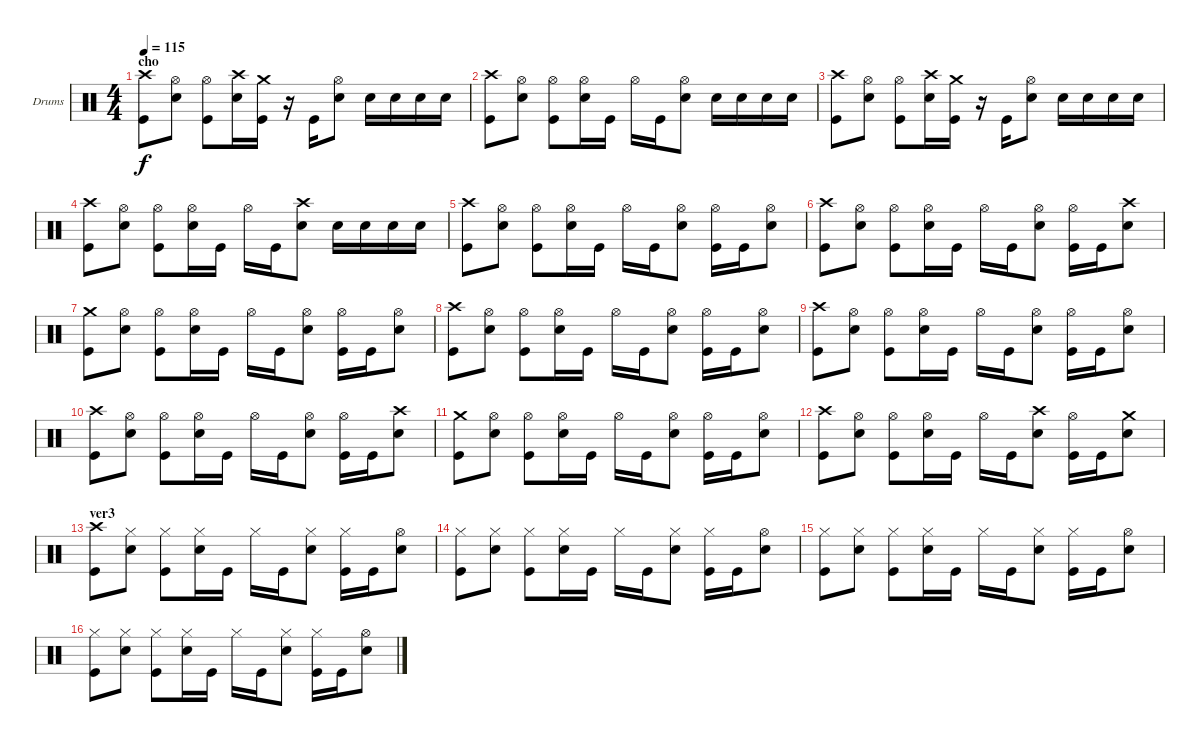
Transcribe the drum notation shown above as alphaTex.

\bracketExtendMode groupsimilarinstruments
\firstSystemTrackNameOrientation horizontal
\otherSystemsTrackNameOrientation horizontal
\track ("Drumkit" "Drums") {instrument percussion}
\staff {score}
\articulation defaults
\ts (4 4)
\section ("" "cho")
\tempo 115
\clef neutral
\ks c
("Crash high (hit)" "Kick (hit)").8{dy f} ("Hi-Hat (open)" "Snare (hit) 2").8 ("Hi-Hat (open)" "Kick (hit)").8 ("Crash high (hit)" "Snare (hit) 2").16 ("Crash medium (hit)" "Kick (hit)").16 r.16 "Kick (hit)".16 ("Hi-Hat (open)" "Snare (hit) 2").8 "Snare (hit) 2".16 "Snare (hit) 2".16 "Snare (hit) 2".16 "Snare (hit) 2".16 |
("Crash high (hit)" "Kick (hit)").8 ("Hi-Hat (open)" "Snare (hit) 2").8 ("Hi-Hat (open)" "Kick (hit)").8 ("Hi-Hat (open)" "Snare (hit) 2").16 "Kick (hit)".16 "Hi-Hat (open)".16 "Kick (hit)".16 ("Hi-Hat (open)" "Snare (hit) 2").8 "Snare (hit) 2".16 "Snare (hit) 2".16 "Snare (hit) 2".16 "Snare (hit) 2".16 |
("Crash high (hit)" "Kick (hit)").8 ("Hi-Hat (open)" "Snare (hit) 2").8 ("Hi-Hat (open)" "Kick (hit)").8 ("Crash high (hit)" "Snare (hit) 2").16 ("Crash medium (hit)" "Kick (hit)").16 r.16 "Kick (hit)".16 ("Hi-Hat (open)" "Snare (hit) 2").8 "Snare (hit) 2".16 "Snare (hit) 2".16 "Snare (hit) 2".16 "Snare (hit) 2".16 |
("Crash high (hit)" "Kick (hit)").8 ("Hi-Hat (open)" "Snare (hit) 2").8 ("Hi-Hat (open)" "Kick (hit)").8 ("Hi-Hat (open)" "Snare (hit) 2").16 "Kick (hit)".16 "Hi-Hat (open)".16 "Kick (hit)".16 ("Crash high (hit)" "Snare (hit) 2").8 "Snare (hit) 2".16 "Snare (hit) 2".16 "Snare (hit) 2".16 "Snare (hit) 2".16 |
("Crash high (hit)" "Kick (hit)").8 ("Hi-Hat (open)" "Snare (hit) 2").8 ("Hi-Hat (open)" "Kick (hit)").8 ("Hi-Hat (open)" "Snare (hit) 2").16 "Kick (hit)".16 "Hi-Hat (open)".16 "Kick (hit)".16 ("Hi-Hat (open)" "Snare (hit) 2").8 ("Hi-Hat (open)" "Kick (hit)").16 "Kick (hit)".16 ("Hi-Hat (open)" "Snare (hit) 2").8 |
("Crash high (hit)" "Kick (hit)").8 ("Hi-Hat (open)" "Snare (hit) 2").8 ("Hi-Hat (open)" "Kick (hit)").8 ("Hi-Hat (open)" "Snare (hit) 2").16 "Kick (hit)".16 "Hi-Hat (open)".16 "Kick (hit)".16 ("Hi-Hat (open)" "Snare (hit) 2").8 ("Hi-Hat (open)" "Kick (hit)").16 "Kick (hit)".16 ("Crash high (hit)" "Snare (hit) 2").8 |
("Crash medium (hit)" "Kick (hit)").8 ("Hi-Hat (open)" "Snare (hit) 2").8 ("Hi-Hat (open)" "Kick (hit)").8 ("Hi-Hat (open)" "Snare (hit) 2").16 "Kick (hit)".16 "Hi-Hat (open)".16 "Kick (hit)".16 ("Hi-Hat (open)" "Snare (hit) 2").8 ("Hi-Hat (open)" "Kick (hit)").16 "Kick (hit)".16 ("Hi-Hat (open)" "Snare (hit) 2").8 |
("Crash high (hit)" "Kick (hit)").8 ("Hi-Hat (open)" "Snare (hit) 2").8 ("Hi-Hat (open)" "Kick (hit)").8 ("Hi-Hat (open)" "Snare (hit) 2").16 "Kick (hit)".16 "Hi-Hat (open)".16 "Kick (hit)".16 ("Hi-Hat (open)" "Snare (hit) 2").8 ("Hi-Hat (open)" "Kick (hit)").16 "Kick (hit)".16 ("Hi-Hat (open)" "Snare (hit) 2").8 |
("Crash high (hit)" "Kick (hit)").8 ("Hi-Hat (open)" "Snare (hit) 2").8 ("Hi-Hat (open)" "Kick (hit)").8 ("Hi-Hat (open)" "Snare (hit) 2").16 "Kick (hit)".16 "Hi-Hat (open)".16 "Kick (hit)".16 ("Hi-Hat (open)" "Snare (hit) 2").8 ("Hi-Hat (open)" "Kick (hit)").16 "Kick (hit)".16 ("Hi-Hat (open)" "Snare (hit) 2").8 |
("Crash high (hit)" "Kick (hit)").8 ("Hi-Hat (open)" "Snare (hit) 2").8 ("Hi-Hat (open)" "Kick (hit)").8 ("Hi-Hat (open)" "Snare (hit) 2").16 "Kick (hit)".16 "Hi-Hat (open)".16 "Kick (hit)".16 ("Hi-Hat (open)" "Snare (hit) 2").8 ("Hi-Hat (open)" "Kick (hit)").16 "Kick (hit)".16 ("Crash high (hit)" "Snare (hit) 2").8 |
("Crash medium (hit)" "Kick (hit)").8 ("Hi-Hat (open)" "Snare (hit) 2").8 ("Hi-Hat (open)" "Kick (hit)").8 ("Hi-Hat (open)" "Snare (hit) 2").16 "Kick (hit)".16 "Hi-Hat (open)".16 "Kick (hit)".16 ("Hi-Hat (open)" "Snare (hit) 2").8 ("Hi-Hat (open)" "Kick (hit)").16 "Kick (hit)".16 ("Hi-Hat (open)" "Snare (hit) 2").8 |
("Crash high (hit)" "Kick (hit)").8 ("Hi-Hat (open)" "Snare (hit) 2").8 ("Hi-Hat (open)" "Kick (hit)").8 ("Hi-Hat (open)" "Snare (hit) 2").16 "Kick (hit)".16 "Hi-Hat (open)".16 "Kick (hit)".16 ("Crash high (hit)" "Snare (hit) 2").8 ("Hi-Hat (open)" "Kick (hit)").16 "Kick (hit)".16 ("Crash medium (hit)" "Snare (hit) 2").8 |
\section ("" "ver3")
("Crash high (hit)" "Kick (hit)").8 ("Hi-Hat (closed)" "Snare (hit) 2").8 ("Hi-Hat (closed)" "Kick (hit)").8 ("Hi-Hat (closed)" "Snare (hit) 2").16 "Kick (hit)".16 "Hi-Hat (closed)".16 "Kick (hit)".16 ("Hi-Hat (closed)" "Snare (hit) 2").8 ("Hi-Hat (closed)" "Kick (hit)").16 "Kick (hit)".16 ("Hi-Hat (open)" "Snare (hit) 2").8 |
("Hi-Hat (closed)" "Kick (hit)").8 ("Hi-Hat (closed)" "Snare (hit) 2").8 ("Hi-Hat (closed)" "Kick (hit)").8 ("Hi-Hat (closed)" "Snare (hit) 2").16 "Kick (hit)".16 "Hi-Hat (closed)".16 "Kick (hit)".16 ("Hi-Hat (closed)" "Snare (hit) 2").8 ("Hi-Hat (closed)" "Kick (hit)").16 "Kick (hit)".16 ("Hi-Hat (open)" "Snare (hit) 2").8 |
("Hi-Hat (closed)" "Kick (hit)").8 ("Hi-Hat (closed)" "Snare (hit) 2").8 ("Hi-Hat (closed)" "Kick (hit)").8 ("Hi-Hat (closed)" "Snare (hit) 2").16 "Kick (hit)".16 "Hi-Hat (closed)".16 "Kick (hit)".16 ("Hi-Hat (closed)" "Snare (hit) 2").8 ("Hi-Hat (closed)" "Kick (hit)").16 "Kick (hit)".16 ("Hi-Hat (open)" "Snare (hit) 2").8 |
("Hi-Hat (closed)" "Kick (hit)").8 ("Hi-Hat (closed)" "Snare (hit) 2").8 ("Hi-Hat (closed)" "Kick (hit)").8 ("Hi-Hat (closed)" "Snare (hit) 2").16 "Kick (hit)".16 "Hi-Hat (closed)".16 "Kick (hit)".16 ("Hi-Hat (closed)" "Snare (hit) 2").8 ("Hi-Hat (closed)" "Kick (hit)").16 "Kick (hit)".16 ("Hi-Hat (open)" "Snare (hit) 2").8
